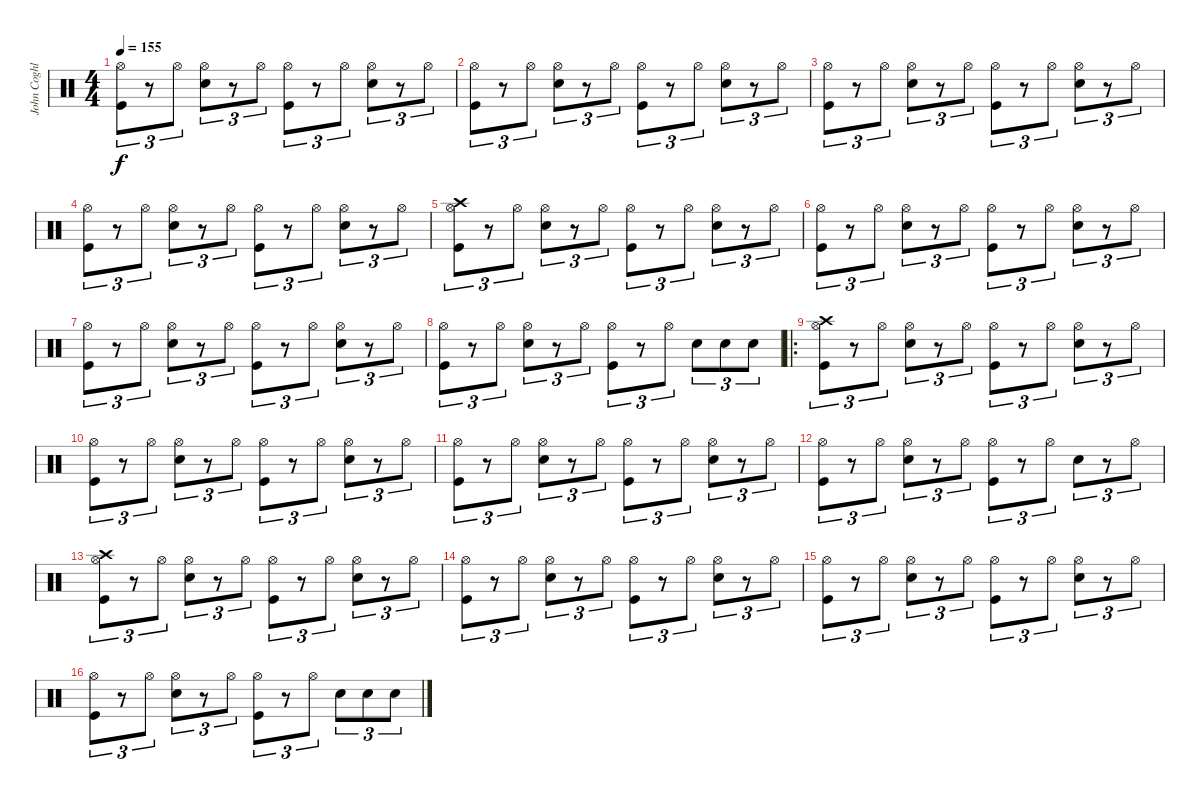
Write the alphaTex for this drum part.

\track ("John Coghlan" "John Coghl") {instrument percussion}
\staff {score}
\articulation defaults
\ts (4 4)
\tempo 155
\clef neutral
\ks c
("Hi-Hat (open)" "Kick (hit)").8{tu (3 2) dy f} r.8{tu (3 2)} "Hi-Hat (open)".8{tu (3 2)} ("Electric Snare (hit)" "Hi-Hat (open)").8{tu (3 2)} r.8{tu (3 2)} "Hi-Hat (open)".8{tu (3 2)} ("Hi-Hat (open)" "Kick (hit)").8{tu (3 2)} r.8{tu (3 2)} "Hi-Hat (open)".8{tu (3 2)} ("Electric Snare (hit)" "Hi-Hat (open)").8{tu (3 2)} r.8{tu (3 2)} "Hi-Hat (open)".8{tu (3 2)} |
("Hi-Hat (open)" "Kick (hit)").8{tu (3 2)} r.8{tu (3 2)} "Hi-Hat (open)".8{tu (3 2)} ("Electric Snare (hit)" "Hi-Hat (open)").8{tu (3 2)} r.8{tu (3 2)} "Hi-Hat (open)".8{tu (3 2)} ("Hi-Hat (open)" "Kick (hit)").8{tu (3 2)} r.8{tu (3 2)} "Hi-Hat (open)".8{tu (3 2)} ("Electric Snare (hit)" "Hi-Hat (open)").8{tu (3 2)} r.8{tu (3 2)} "Hi-Hat (open)".8{tu (3 2)} |
("Hi-Hat (open)" "Kick (hit)").8{tu (3 2)} r.8{tu (3 2)} "Hi-Hat (open)".8{tu (3 2)} ("Electric Snare (hit)" "Hi-Hat (open)").8{tu (3 2)} r.8{tu (3 2)} "Hi-Hat (open)".8{tu (3 2)} ("Hi-Hat (open)" "Kick (hit)").8{tu (3 2)} r.8{tu (3 2)} "Hi-Hat (open)".8{tu (3 2)} ("Electric Snare (hit)" "Hi-Hat (open)").8{tu (3 2)} r.8{tu (3 2)} "Hi-Hat (open)".8{tu (3 2)} |
("Hi-Hat (open)" "Kick (hit)").8{tu (3 2)} r.8{tu (3 2)} "Hi-Hat (open)".8{tu (3 2)} ("Electric Snare (hit)" "Hi-Hat (open)").8{tu (3 2)} r.8{tu (3 2)} "Hi-Hat (open)".8{tu (3 2)} ("Hi-Hat (open)" "Kick (hit)").8{tu (3 2)} r.8{tu (3 2)} "Hi-Hat (open)".8{tu (3 2)} ("Electric Snare (hit)" "Hi-Hat (open)").8{tu (3 2)} r.8{tu (3 2)} "Hi-Hat (open)".8{tu (3 2)} |
("Crash high (hit)" "Hi-Hat (open)" "Kick (hit)").8{tu (3 2)} r.8{tu (3 2)} "Hi-Hat (open)".8{tu (3 2)} ("Electric Snare (hit)" "Hi-Hat (open)").8{tu (3 2)} r.8{tu (3 2)} "Hi-Hat (open)".8{tu (3 2)} ("Hi-Hat (open)" "Kick (hit)").8{tu (3 2)} r.8{tu (3 2)} "Hi-Hat (open)".8{tu (3 2)} ("Electric Snare (hit)" "Hi-Hat (open)").8{tu (3 2)} r.8{tu (3 2)} "Hi-Hat (open)".8{tu (3 2)} |
("Hi-Hat (open)" "Kick (hit)").8{tu (3 2)} r.8{tu (3 2)} "Hi-Hat (open)".8{tu (3 2)} ("Electric Snare (hit)" "Hi-Hat (open)").8{tu (3 2)} r.8{tu (3 2)} "Hi-Hat (open)".8{tu (3 2)} ("Hi-Hat (open)" "Kick (hit)").8{tu (3 2)} r.8{tu (3 2)} "Hi-Hat (open)".8{tu (3 2)} ("Electric Snare (hit)" "Hi-Hat (open)").8{tu (3 2)} r.8{tu (3 2)} "Hi-Hat (open)".8{tu (3 2)} |
("Hi-Hat (open)" "Kick (hit)").8{tu (3 2)} r.8{tu (3 2)} "Hi-Hat (open)".8{tu (3 2)} ("Electric Snare (hit)" "Hi-Hat (open)").8{tu (3 2)} r.8{tu (3 2)} "Hi-Hat (open)".8{tu (3 2)} ("Hi-Hat (open)" "Kick (hit)").8{tu (3 2)} r.8{tu (3 2)} "Hi-Hat (open)".8{tu (3 2)} ("Electric Snare (hit)" "Hi-Hat (open)").8{tu (3 2)} r.8{tu (3 2)} "Hi-Hat (open)".8{tu (3 2)} |
("Hi-Hat (open)" "Kick (hit)").8{tu (3 2)} r.8{tu (3 2)} "Hi-Hat (open)".8{tu (3 2)} ("Electric Snare (hit)" "Hi-Hat (open)").8{tu (3 2)} r.8{tu (3 2)} "Hi-Hat (open)".8{tu (3 2)} ("Hi-Hat (open)" "Kick (hit)").8{tu (3 2)} r.8{tu (3 2)} "Hi-Hat (open)".8{tu (3 2)} "Electric Snare (hit)".8{tu (3 2)} "Electric Snare (hit)".8{tu (3 2)} "Electric Snare (hit)".8{tu (3 2)} |
\ro
("Crash high (hit)" "Hi-Hat (open)" "Kick (hit)").8{tu (3 2)} r.8{tu (3 2)} "Hi-Hat (open)".8{tu (3 2)} ("Electric Snare (hit)" "Hi-Hat (open)").8{tu (3 2)} r.8{tu (3 2)} "Hi-Hat (open)".8{tu (3 2)} ("Hi-Hat (open)" "Kick (hit)").8{tu (3 2)} r.8{tu (3 2)} "Hi-Hat (open)".8{tu (3 2)} ("Electric Snare (hit)" "Hi-Hat (open)").8{tu (3 2)} r.8{tu (3 2)} "Hi-Hat (open)".8{tu (3 2)} |
("Hi-Hat (open)" "Kick (hit)").8{tu (3 2)} r.8{tu (3 2)} "Hi-Hat (open)".8{tu (3 2)} ("Electric Snare (hit)" "Hi-Hat (open)").8{tu (3 2)} r.8{tu (3 2)} "Hi-Hat (open)".8{tu (3 2)} ("Hi-Hat (open)" "Kick (hit)").8{tu (3 2)} r.8{tu (3 2)} "Hi-Hat (open)".8{tu (3 2)} ("Electric Snare (hit)" "Hi-Hat (open)").8{tu (3 2)} r.8{tu (3 2)} "Hi-Hat (open)".8{tu (3 2)} |
("Hi-Hat (open)" "Kick (hit)").8{tu (3 2)} r.8{tu (3 2)} "Hi-Hat (open)".8{tu (3 2)} ("Electric Snare (hit)" "Hi-Hat (open)").8{tu (3 2)} r.8{tu (3 2)} "Hi-Hat (open)".8{tu (3 2)} ("Hi-Hat (open)" "Kick (hit)").8{tu (3 2)} r.8{tu (3 2)} "Hi-Hat (open)".8{tu (3 2)} ("Electric Snare (hit)" "Hi-Hat (open)").8{tu (3 2)} r.8{tu (3 2)} "Hi-Hat (open)".8{tu (3 2)} |
("Hi-Hat (open)" "Kick (hit)").8{tu (3 2)} r.8{tu (3 2)} "Hi-Hat (open)".8{tu (3 2)} ("Electric Snare (hit)" "Hi-Hat (open)").8{tu (3 2)} r.8{tu (3 2)} "Hi-Hat (open)".8{tu (3 2)} ("Hi-Hat (open)" "Kick (hit)").8{tu (3 2)} r.8{tu (3 2)} "Hi-Hat (open)".8{tu (3 2)} "Electric Snare (hit)".8{tu (3 2)} r.8{tu (3 2)} "Hi-Hat (open)".8{tu (3 2)} |
("Crash high (hit)" "Hi-Hat (open)" "Kick (hit)").8{tu (3 2)} r.8{tu (3 2)} "Hi-Hat (open)".8{tu (3 2)} ("Electric Snare (hit)" "Hi-Hat (open)").8{tu (3 2)} r.8{tu (3 2)} "Hi-Hat (open)".8{tu (3 2)} ("Hi-Hat (open)" "Kick (hit)").8{tu (3 2)} r.8{tu (3 2)} "Hi-Hat (open)".8{tu (3 2)} ("Electric Snare (hit)" "Hi-Hat (open)").8{tu (3 2)} r.8{tu (3 2)} "Hi-Hat (open)".8{tu (3 2)} |
("Hi-Hat (open)" "Kick (hit)").8{tu (3 2)} r.8{tu (3 2)} "Hi-Hat (open)".8{tu (3 2)} ("Electric Snare (hit)" "Hi-Hat (open)").8{tu (3 2)} r.8{tu (3 2)} "Hi-Hat (open)".8{tu (3 2)} ("Hi-Hat (open)" "Kick (hit)").8{tu (3 2)} r.8{tu (3 2)} "Hi-Hat (open)".8{tu (3 2)} ("Electric Snare (hit)" "Hi-Hat (open)").8{tu (3 2)} r.8{tu (3 2)} "Hi-Hat (open)".8{tu (3 2)} |
("Hi-Hat (open)" "Kick (hit)").8{tu (3 2)} r.8{tu (3 2)} "Hi-Hat (open)".8{tu (3 2)} ("Electric Snare (hit)" "Hi-Hat (open)").8{tu (3 2)} r.8{tu (3 2)} "Hi-Hat (open)".8{tu (3 2)} ("Hi-Hat (open)" "Kick (hit)").8{tu (3 2)} r.8{tu (3 2)} "Hi-Hat (open)".8{tu (3 2)} ("Electric Snare (hit)" "Hi-Hat (open)").8{tu (3 2)} r.8{tu (3 2)} "Hi-Hat (open)".8{tu (3 2)} |
("Hi-Hat (open)" "Kick (hit)").8{tu (3 2)} r.8{tu (3 2)} "Hi-Hat (open)".8{tu (3 2)} ("Electric Snare (hit)" "Hi-Hat (open)").8{tu (3 2)} r.8{tu (3 2)} "Hi-Hat (open)".8{tu (3 2)} ("Hi-Hat (open)" "Kick (hit)").8{tu (3 2)} r.8{tu (3 2)} "Hi-Hat (open)".8{tu (3 2)} "Electric Snare (hit)".8{tu (3 2)} "Electric Snare (hit)".8{tu (3 2)} "Electric Snare (hit)".8{tu (3 2)}
